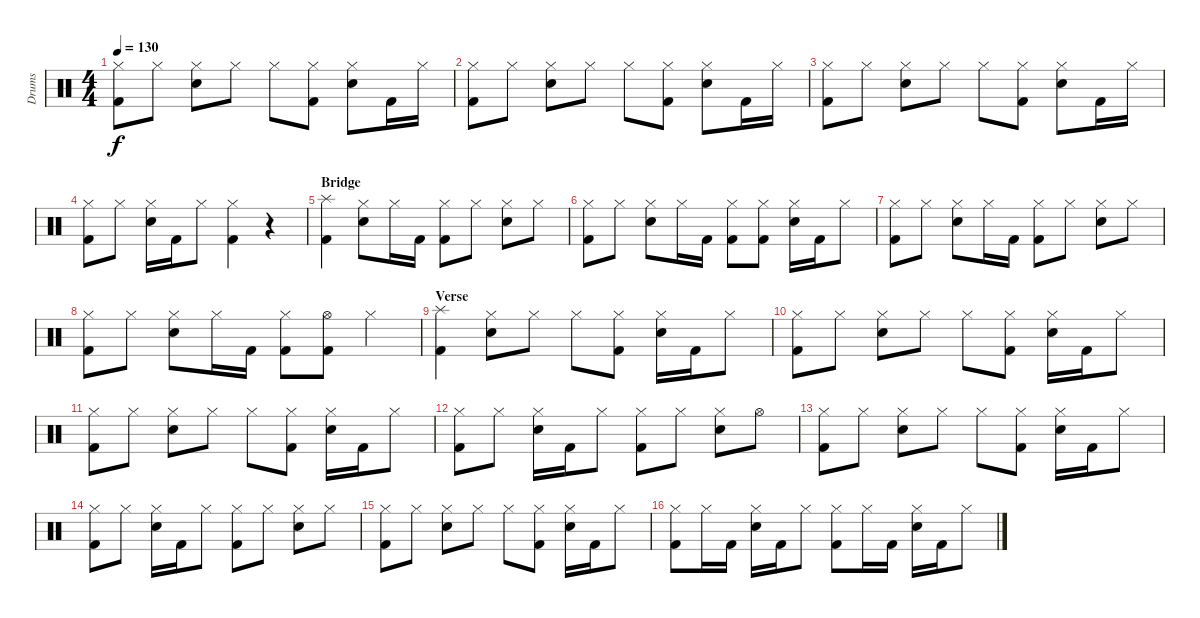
\track ("Drums" "Drums") {instrument percussion}
\staff {score}
\articulation defaults
\ts (4 4)
\tempo 130
\clef neutral
\ks c
("Hi-Hat (closed)" "Kick (hit) 2").8{dy f} "Hi-Hat (closed)".8 ("Hi-Hat (closed)" "Snare (hit) 2").8 "Hi-Hat (closed)".8 "Hi-Hat (closed)".8 ("Hi-Hat (closed)" "Kick (hit) 2").8 ("Hi-Hat (closed)" "Snare (hit) 2").8 "Kick (hit) 2".16 "Hi-Hat (closed)".16 |
("Hi-Hat (closed)" "Kick (hit) 2").8 "Hi-Hat (closed)".8 ("Hi-Hat (closed)" "Snare (hit) 2").8 "Hi-Hat (closed)".8 "Hi-Hat (closed)".8 ("Hi-Hat (closed)" "Kick (hit) 2").8 ("Hi-Hat (closed)" "Snare (hit) 2").8 "Kick (hit) 2".16 "Hi-Hat (closed)".16 |
("Hi-Hat (closed)" "Kick (hit) 2").8 "Hi-Hat (closed)".8 ("Hi-Hat (closed)" "Snare (hit) 2").8 "Hi-Hat (closed)".8 "Hi-Hat (closed)".8 ("Hi-Hat (closed)" "Kick (hit) 2").8 ("Hi-Hat (closed)" "Snare (hit) 2").8 "Kick (hit) 2".16 "Hi-Hat (closed)".16 |
("Hi-Hat (closed)" "Kick (hit) 2").8 "Hi-Hat (closed)".8 ("Hi-Hat (closed)" "Snare (hit) 2").16 "Kick (hit) 2".16 "Hi-Hat (closed)".8 ("Hi-Hat (closed)" "Kick (hit) 2").4 r.4 |
\section ("" "Bridge")
("Splash (hit)" "Kick (hit) 2").4 ("Hi-Hat (closed)" "Snare (hit) 2").8 "Hi-Hat (closed)".16 "Kick (hit) 2".16 ("Hi-Hat (closed)" "Kick (hit) 2").8 "Hi-Hat (closed)".8 ("Hi-Hat (closed)" "Snare (hit) 2").8 "Hi-Hat (closed)".8 |
("Hi-Hat (closed)" "Kick (hit) 2").8 "Hi-Hat (closed)".8 ("Hi-Hat (closed)" "Snare (hit) 2").8 "Hi-Hat (closed)".16 "Kick (hit) 2".16 ("Hi-Hat (closed)" "Kick (hit) 2").8 ("Hi-Hat (closed)" "Kick (hit) 2").8 ("Hi-Hat (closed)" "Snare (hit) 2").16 "Kick (hit) 2".16 "Hi-Hat (closed)".8 |
("Hi-Hat (closed)" "Kick (hit) 2").8 "Hi-Hat (closed)".8 ("Hi-Hat (closed)" "Snare (hit) 2").8 "Hi-Hat (closed)".16 "Kick (hit) 2".16 ("Hi-Hat (closed)" "Kick (hit) 2").8 "Hi-Hat (closed)".8 ("Hi-Hat (closed)" "Snare (hit) 2").8 "Hi-Hat (closed)".8 |
("Hi-Hat (closed)" "Kick (hit) 2").8 "Hi-Hat (closed)".8 ("Hi-Hat (closed)" "Snare (hit) 2").8 "Hi-Hat (closed)".16 "Kick (hit) 2".16 ("Hi-Hat (closed)" "Kick (hit) 2").8 ("Hi-Hat (open)" "Kick (hit) 2").8 "Hi-Hat (closed)".4 |
\section ("" "Verse")
("Splash (hit)" "Kick (hit) 2").4 ("Hi-Hat (closed)" "Snare (hit) 2").8 "Hi-Hat (closed)".8 "Hi-Hat (closed)".8 ("Hi-Hat (closed)" "Kick (hit) 2").8 ("Hi-Hat (closed)" "Snare (hit) 2").16 "Kick (hit) 2".16 "Hi-Hat (closed)".8 |
("Hi-Hat (closed)" "Kick (hit) 2").8 "Hi-Hat (closed)".8 ("Hi-Hat (closed)" "Snare (hit) 2").8 "Hi-Hat (closed)".8 "Hi-Hat (closed)".8 ("Hi-Hat (closed)" "Kick (hit) 2").8 ("Hi-Hat (closed)" "Snare (hit) 2").16 "Kick (hit) 2".16 "Hi-Hat (closed)".8 |
("Hi-Hat (closed)" "Kick (hit) 2").8 "Hi-Hat (closed)".8 ("Hi-Hat (closed)" "Snare (hit) 2").8 "Hi-Hat (closed)".8 "Hi-Hat (closed)".8 ("Hi-Hat (closed)" "Kick (hit) 2").8 ("Hi-Hat (closed)" "Snare (hit) 2").16 "Kick (hit) 2".16 "Hi-Hat (closed)".8 |
("Hi-Hat (closed)" "Kick (hit) 2").8 "Hi-Hat (closed)".8 ("Hi-Hat (closed)" "Snare (hit) 2").16 "Kick (hit) 2".16 "Hi-Hat (closed)".8 ("Hi-Hat (closed)" "Kick (hit) 2").8 "Hi-Hat (closed)".8 ("Hi-Hat (closed)" "Snare (hit) 2").8 "Hi-Hat (open)".8 |
("Hi-Hat (closed)" "Kick (hit) 2").8 "Hi-Hat (closed)".8 ("Hi-Hat (closed)" "Snare (hit) 2").8 "Hi-Hat (closed)".8 "Hi-Hat (closed)".8 ("Hi-Hat (closed)" "Kick (hit) 2").8 ("Hi-Hat (closed)" "Snare (hit) 2").16 "Kick (hit) 2".16 "Hi-Hat (closed)".8 |
("Hi-Hat (closed)" "Kick (hit) 2").8 "Hi-Hat (closed)".8 ("Hi-Hat (closed)" "Snare (hit) 2").16 "Kick (hit) 2".16 "Hi-Hat (closed)".8 ("Hi-Hat (closed)" "Kick (hit) 2").8 "Hi-Hat (closed)".8 ("Hi-Hat (closed)" "Snare (hit) 2").8 "Hi-Hat (closed)".8 |
("Hi-Hat (closed)" "Kick (hit) 2").8 "Hi-Hat (closed)".8 ("Hi-Hat (closed)" "Snare (hit) 2").8 "Hi-Hat (closed)".8 "Hi-Hat (closed)".8 ("Hi-Hat (closed)" "Kick (hit) 2").8 ("Hi-Hat (closed)" "Snare (hit) 2").16 "Kick (hit) 2".16 "Hi-Hat (closed)".8 |
("Hi-Hat (closed)" "Kick (hit) 2").8 "Hi-Hat (closed)".16 "Kick (hit) 2".16 ("Hi-Hat (closed)" "Snare (hit) 2").16 "Kick (hit) 2".16 "Hi-Hat (closed)".8 ("Hi-Hat (closed)" "Kick (hit) 2").8 "Hi-Hat (closed)".16 "Kick (hit) 2".16 ("Hi-Hat (closed)" "Snare (hit) 2").16 "Kick (hit) 2".16 "Hi-Hat (closed)".8
